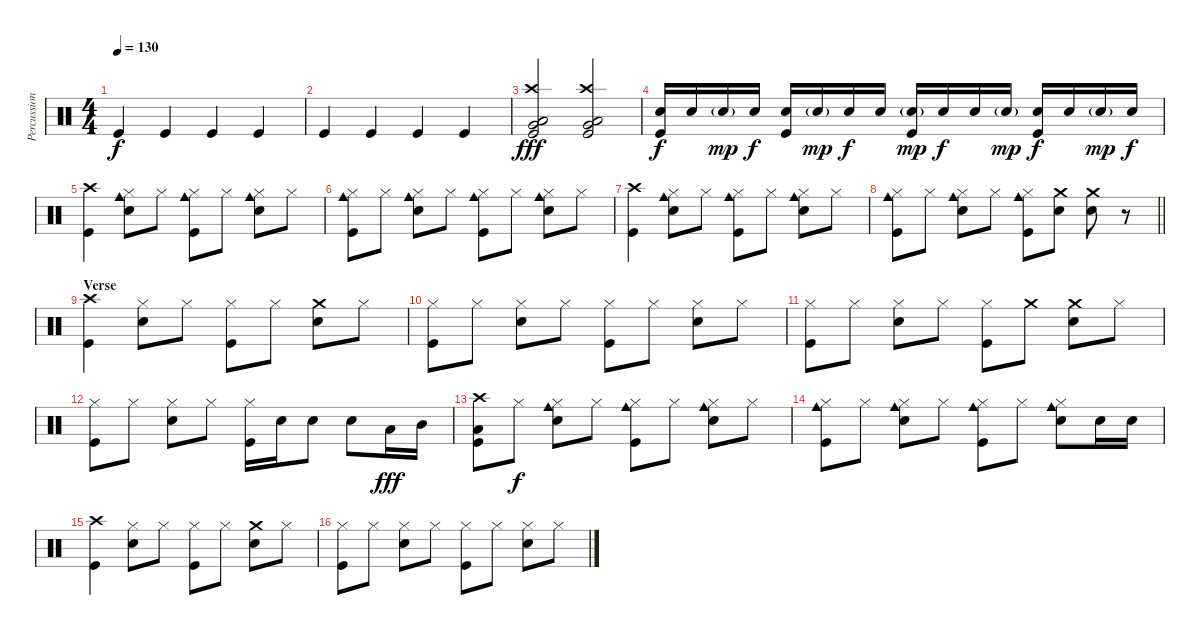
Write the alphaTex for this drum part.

\track ("Percussions" "Percussion") {instrument percussion}
\staff {score}
\articulation defaults
\ts (4 4)
\tempo 130
\clef neutral
\ks c "Kick (hit)".4{dy f} "Kick (hit)".4 "Kick (hit)".4 "Kick (hit)".4
|
"Kick (hit)".4 "Kick (hit)".4 "Kick (hit)".4 "Kick (hit)".4 |
("Crash high (hit)" "Low Tom (hit)" "Very Low Tom (hit)" "Kick (hit)").2{dy fff} ("Crash high (hit)" "Low Tom (hit)" "Very Low Tom (hit)" "Kick (hit)").2 |
("Snare (hit) 2" "Kick (hit)").16{dy f} "Snare (hit) 2".16 "Snare (hit) 2"{g}.16{dy mp} "Snare (hit) 2".16{dy f} ("Snare (hit) 2" "Kick (hit)").16 "Snare (hit) 2"{g}.16{dy mp} "Snare (hit) 2".16{dy f} "Snare (hit) 2".16 ("Snare (hit) 2"{g} "Kick (hit)").16{dy mp} "Snare (hit) 2".16{dy f} "Snare (hit) 2".16 "Snare (hit) 2"{g}.16{dy mp} ("Snare (hit) 2" "Kick (hit)").16{dy f} "Snare (hit) 2".16 "Snare (hit) 2"{g}.16{dy mp} "Snare (hit) 2".16{dy f} |
("Crash high (hit)" "Kick (hit)").4 ("Cowbell medium (hit)" "Hi-Hat (closed)" "Snare (hit) 2").8 "Hi-Hat (closed)".8 ("Cowbell medium (hit)" "Hi-Hat (closed)" "Kick (hit)").8 "Hi-Hat (closed)".8 ("Cowbell medium (hit)" "Hi-Hat (closed)" "Snare (hit) 2").8 "Hi-Hat (closed)".8 |
("Cowbell medium (hit)" "Hi-Hat (closed)" "Kick (hit)").8 "Hi-Hat (closed)".8 ("Cowbell medium (hit)" "Hi-Hat (closed)" "Snare (hit) 2").8 "Hi-Hat (closed)".8 ("Cowbell medium (hit)" "Hi-Hat (closed)" "Kick (hit)").8 "Hi-Hat (closed)".8 ("Cowbell medium (hit)" "Hi-Hat (closed)" "Snare (hit) 2").8 "Hi-Hat (closed)".8 |
("Crash high (hit)" "Kick (hit)").4 ("Cowbell medium (hit)" "Hi-Hat (closed)" "Snare (hit) 2").8 "Hi-Hat (closed)".8 ("Cowbell medium (hit)" "Hi-Hat (closed)" "Kick (hit)").8 "Hi-Hat (closed)".8 ("Cowbell medium (hit)" "Hi-Hat (closed)" "Snare (hit) 2").8 "Hi-Hat (closed)".8 |
\barLineRight lightlight
("Cowbell medium (hit)" "Hi-Hat (closed)" "Kick (hit)").8 "Hi-Hat (closed)".8 ("Cowbell medium (hit)" "Hi-Hat (closed)" "Snare (hit) 2").8 "Hi-Hat (closed)".8 ("Cowbell medium (hit)" "Hi-Hat (closed)" "Kick (hit)").8 ("Crash medium (hit)" "Snare (hit) 2").8 ("Crash medium (hit)" "Snare (hit) 2").8 r.8 |
\section ("" "Verse")
("Crash high (hit)" "Kick (hit)").4 ("Hi-Hat (closed)" "Snare (hit) 2").8 "Hi-Hat (closed)".8 ("Hi-Hat (closed)" "Kick (hit)").8 "Hi-Hat (closed)".8 ("Crash medium (hit)" "Snare (hit) 2").8 "Hi-Hat (closed)".8 |
("Hi-Hat (closed)" "Kick (hit)").8 "Hi-Hat (closed)".8 ("Hi-Hat (closed)" "Snare (hit) 2").8 "Hi-Hat (closed)".8 ("Hi-Hat (closed)" "Kick (hit)").8 "Hi-Hat (closed)".8 ("Hi-Hat (closed)" "Snare (hit) 2").8 "Hi-Hat (closed)".8 |
("Hi-Hat (closed)" "Kick (hit)").8 "Hi-Hat (closed)".8 ("Hi-Hat (closed)" "Snare (hit) 2").8 "Hi-Hat (closed)".8 ("Hi-Hat (closed)" "Kick (hit)").8 "Crash medium (hit)".8 ("Crash medium (hit)" "Snare (hit) 2").8 "Hi-Hat (closed)".8 |
("Hi-Hat (closed)" "Kick (hit)").8 "Hi-Hat (closed)".8 ("Hi-Hat (closed)" "Snare (hit) 2").8 "Hi-Hat (closed)".8 ("Hi-Hat (closed)" "Kick (hit)").16 "Snare (hit) 2".16 "Snare (hit) 2".8 "Snare (hit) 2".8 "Low Tom (hit)".16{dy fff} "Mid Tom (hit)".16 |
("Crash high (hit)" "Low Tom (hit)" "Kick (hit)").8 "Hi-Hat (closed)".8{dy f} ("Cowbell medium (hit)" "Hi-Hat (closed)" "Snare (hit) 2").8 "Hi-Hat (closed)".8 ("Cowbell medium (hit)" "Hi-Hat (closed)" "Kick (hit)").8 "Hi-Hat (closed)".8 ("Cowbell medium (hit)" "Hi-Hat (closed)" "Snare (hit) 2").8 "Hi-Hat (closed)".8 |
("Cowbell medium (hit)" "Hi-Hat (closed)" "Kick (hit)").8 "Hi-Hat (closed)".8 ("Cowbell medium (hit)" "Hi-Hat (closed)" "Snare (hit) 2").8 "Hi-Hat (closed)".8 ("Cowbell medium (hit)" "Hi-Hat (closed)" "Kick (hit)").8 "Hi-Hat (closed)".8 ("Cowbell medium (hit)" "Hi-Hat (closed)" "Snare (hit) 2").8 "Snare (hit) 2".16 "Snare (hit) 2".16 |
("Crash high (hit)" "Kick (hit)").4 ("Hi-Hat (closed)" "Snare (hit) 2").8 "Hi-Hat (closed)".8 ("Hi-Hat (closed)" "Kick (hit)").8 "Hi-Hat (closed)".8 ("Crash medium (hit)" "Snare (hit) 2").8 "Hi-Hat (closed)".8 |
("Hi-Hat (closed)" "Kick (hit)").8 "Hi-Hat (closed)".8 ("Hi-Hat (closed)" "Snare (hit) 2").8 "Hi-Hat (closed)".8 ("Hi-Hat (closed)" "Kick (hit)").8 "Hi-Hat (closed)".8 ("Hi-Hat (closed)" "Snare (hit) 2").8 "Hi-Hat (closed)".8
